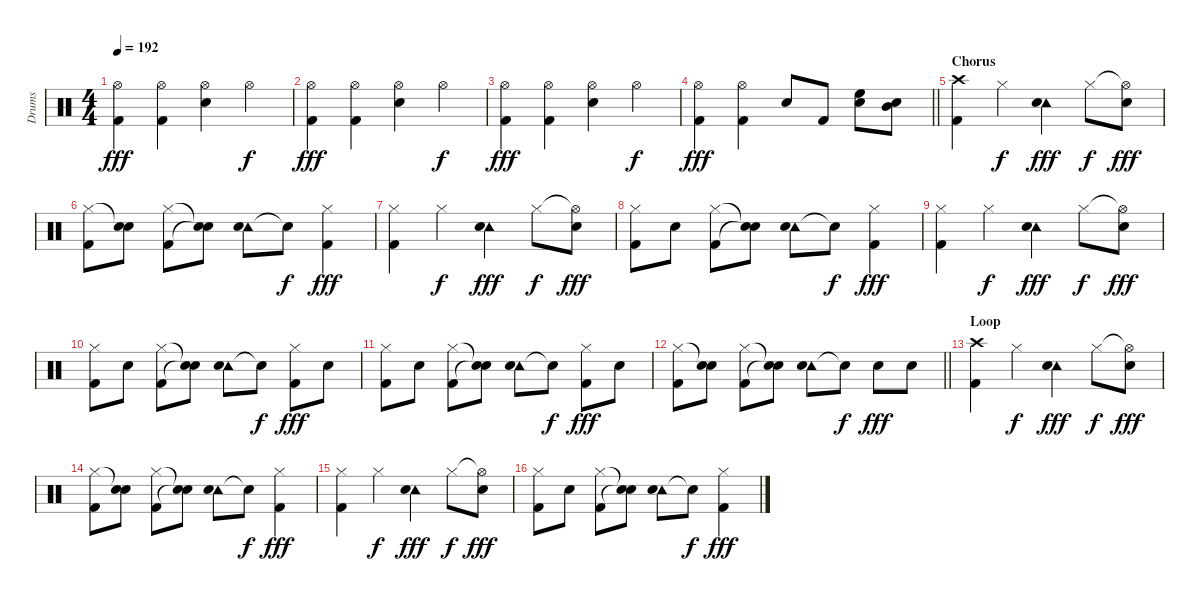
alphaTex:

\track ("Drums" "Drums") {instrument percussion}
\staff {score}
\articulation defaults
\ts (4 4)
\tempo 192
\clef neutral
\ks c
("Hi-Hat (open)" "Kick (hit) 2").4{dy fff} ("Hi-Hat (open)" "Kick (hit) 2").4 ("Hi-Hat (open)" "Snare (hit) 2").4 "Hi-Hat (open)".4{dy f} |
("Hi-Hat (open)" "Kick (hit) 2").4{dy fff} ("Hi-Hat (open)" "Kick (hit) 2").4 ("Hi-Hat (open)" "Snare (hit) 2").4 "Hi-Hat (open)".4{dy f} |
("Hi-Hat (open)" "Kick (hit) 2").4{dy fff} ("Hi-Hat (open)" "Kick (hit) 2").4 ("Hi-Hat (open)" "Snare (hit) 2").4 "Hi-Hat (open)".4{dy f} |
\barLineRight lightlight
("Hi-Hat (open)" "Kick (hit) 2").4{dy fff} ("Hi-Hat (open)" "Kick (hit) 2").4 "Snare (hit) 2".8 "Kick (hit) 2".8 ("Snare (hit) 2" "High Floor Tom (hit)").8 ("Snare (hit) 2" "Mid Tom (hit)").8 |
\section ("" "Chorus")
("Crash high (hit)" "Kick (hit) 2").4 "Hi-Hat (closed)".4{dy f} ("Tambourine (hit)" "Snare (hit) 2").4{dy fff} "Hi-Hat (closed)".8{dy f} ("Hi-Hat (open)"{t} "Snare (hit) 2").8{dy fff} |
("Hi-Hat (closed)" "Kick (hit) 2").8 ("Snare (hit)"{t} "Snare (hit) 2").8 ("Hi-Hat (closed)" "Kick (hit) 2").8 ("Snare (hit)"{t} "Snare (hit)"{t}).8 ("Tambourine (hit)" "Snare (hit) 2").8 "Snare (hit)"{t}.8{dy f} ("Hi-Hat (closed)" "Kick (hit) 2").4{dy fff} |
("Hi-Hat (closed)" "Kick (hit) 2").4 "Hi-Hat (closed)".4{dy f} ("Tambourine (hit)" "Snare (hit) 2").4{dy fff} "Hi-Hat (closed)".8{dy f} ("Hi-Hat (open)"{t} "Snare (hit) 2").8{dy fff} |
("Hi-Hat (closed)" "Kick (hit) 2").8 "Snare (hit) 2".8 ("Hi-Hat (closed)" "Kick (hit) 2").8 ("Snare (hit)"{t} "Snare (hit)"{t}).8 ("Tambourine (hit)" "Snare (hit) 2").8 "Snare (hit)"{t}.8{dy f} ("Hi-Hat (closed)" "Kick (hit) 2").4{dy fff} |
("Hi-Hat (closed)" "Kick (hit) 2").4 "Hi-Hat (closed)".4{dy f} ("Tambourine (hit)" "Snare (hit) 2").4{dy fff} "Hi-Hat (closed)".8{dy f} ("Hi-Hat (open)"{t} "Snare (hit) 2").8{dy fff} |
("Hi-Hat (closed)" "Kick (hit) 2").8 "Snare (hit) 2".8 ("Hi-Hat (closed)" "Kick (hit) 2").8 ("Snare (hit)"{t} "Snare (hit)"{t}).8 ("Tambourine (hit)" "Snare (hit) 2").8 "Snare (hit)"{t}.8{dy f} ("Hi-Hat (closed)" "Kick (hit) 2").8{dy fff} "Snare (hit) 2".8 |
("Hi-Hat (closed)" "Kick (hit) 2").8 "Snare (hit) 2".8 ("Hi-Hat (closed)" "Kick (hit) 2").8 ("Snare (hit)"{t} "Snare (hit)"{t}).8 ("Tambourine (hit)" "Snare (hit) 2").8 "Snare (hit)"{t}.8{dy f} ("Hi-Hat (closed)" "Kick (hit) 2").8{dy fff} "Snare (hit) 2".8 |
\barLineRight lightlight
("Hi-Hat (closed)" "Kick (hit) 2").8 ("Snare (hit)"{t} "Snare (hit) 2").8 ("Hi-Hat (closed)" "Kick (hit) 2").8 ("Snare (hit)"{t} "Snare (hit)"{t}).8 ("Tambourine (hit)" "Snare (hit) 2").8 "Snare (hit)"{t}.8{dy f} "Snare (hit) 2".8{dy fff} "Snare (hit) 2".8 |
\section ("" "Loop")
("Crash high (hit)" "Kick (hit) 2").4 "Hi-Hat (closed)".4{dy f} ("Tambourine (hit)" "Snare (hit) 2").4{dy fff} "Hi-Hat (closed)".8{dy f} ("Hi-Hat (open)"{t} "Snare (hit) 2").8{dy fff} |
("Hi-Hat (closed)" "Kick (hit) 2").8 ("Snare (hit)"{t} "Snare (hit) 2").8 ("Hi-Hat (closed)" "Kick (hit) 2").8 ("Snare (hit)"{t} "Snare (hit)"{t}).8 ("Tambourine (hit)" "Snare (hit) 2").8 "Snare (hit)"{t}.8{dy f} ("Hi-Hat (closed)" "Kick (hit) 2").4{dy fff} |
("Hi-Hat (closed)" "Kick (hit) 2").4 "Hi-Hat (closed)".4{dy f} ("Tambourine (hit)" "Snare (hit) 2").4{dy fff} "Hi-Hat (closed)".8{dy f} ("Hi-Hat (open)"{t} "Snare (hit) 2").8{dy fff} |
("Hi-Hat (closed)" "Kick (hit) 2").8 "Snare (hit) 2".8 ("Hi-Hat (closed)" "Kick (hit) 2").8 ("Snare (hit)"{t} "Snare (hit)"{t}).8 ("Tambourine (hit)" "Snare (hit) 2").8 "Snare (hit)"{t}.8{dy f} ("Hi-Hat (closed)" "Kick (hit) 2").4{dy fff}
